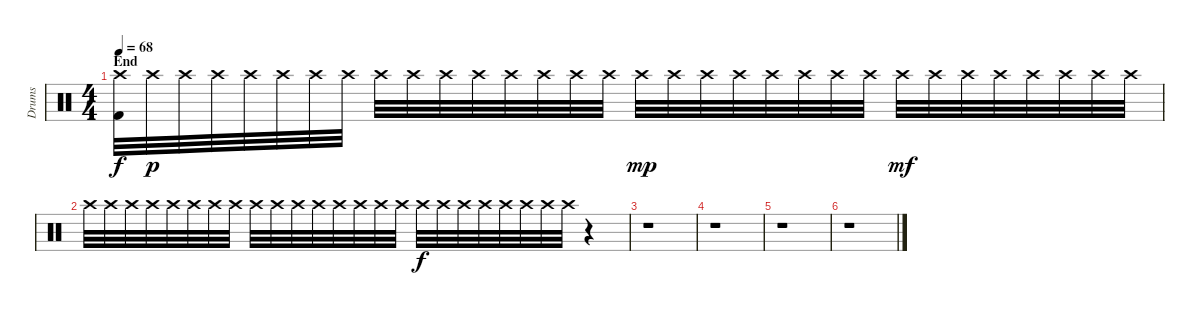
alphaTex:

\track ("Drums" "Drums") {instrument percussion}
\staff {score}
\articulation defaults
\ts (4 4)
\section ("" "End")
\tempo 68
\clef neutral
\ks c
("Crash high (hit)" "Kick (hit) 2").32{dy f} "Crash high (hit)".32{dy p} "Crash high (hit)".32 "Crash high (hit)".32 "Crash high (hit)".32 "Crash high (hit)".32 "Crash high (hit)".32 "Crash high (hit)".32 "Crash high (hit)".32 "Crash high (hit)".32 "Crash high (hit)".32 "Crash high (hit)".32 "Crash high (hit)".32 "Crash high (hit)".32 "Crash high (hit)".32 "Crash high (hit)".32 "Crash high (hit)".32{dy mp} "Crash high (hit)".32 "Crash high (hit)".32 "Crash high (hit)".32 "Crash high (hit)".32 "Crash high (hit)".32 "Crash high (hit)".32 "Crash high (hit)".32 "Crash high (hit)".32{dy mf} "Crash high (hit)".32 "Crash high (hit)".32 "Crash high (hit)".32 "Crash high (hit)".32 "Crash high (hit)".32 "Crash high (hit)".32 "Crash high (hit)".32 |
"Crash high (hit)".32 "Crash high (hit)".32 "Crash high (hit)".32 "Crash high (hit)".32 "Crash high (hit)".32 "Crash high (hit)".32 "Crash high (hit)".32 "Crash high (hit)".32 "Crash high (hit)".32 "Crash high (hit)".32 "Crash high (hit)".32 "Crash high (hit)".32 "Crash high (hit)".32 "Crash high (hit)".32 "Crash high (hit)".32 "Crash high (hit)".32 "Crash high (hit)".32{dy f} "Crash high (hit)".32 "Crash high (hit)".32 "Crash high (hit)".32 "Crash high (hit)".32 "Crash high (hit)".32 "Crash high (hit)".32 "Crash high (hit)".32 r.4 |
r.1 |
r.1 |
r.1 |
r.1
